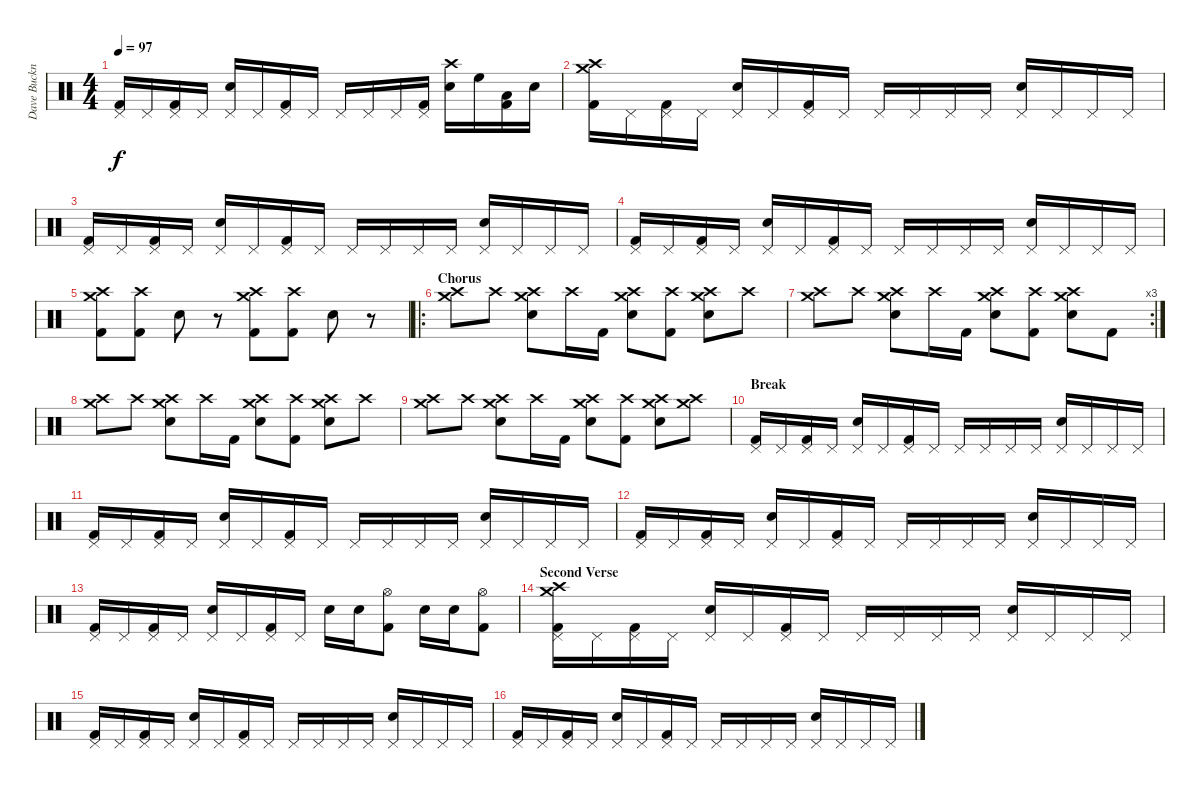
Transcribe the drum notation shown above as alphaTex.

\track ("Dave Buckner" "Dave Buckn") {instrument percussion}
\staff {score}
\articulation defaults
\ts (4 4)
\tempo 97
\clef neutral
\ks c
("Pedal Hi-Hat (hit)" "Kick (hit) 2").16{dy f} "Pedal Hi-Hat (hit)".16 ("Pedal Hi-Hat (hit)" "Kick (hit) 2").16 "Pedal Hi-Hat (hit)".16 ("Pedal Hi-Hat (hit)" "Snare (hit) 2").16 "Pedal Hi-Hat (hit)".16 ("Pedal Hi-Hat (hit)" "Kick (hit) 2").16 "Pedal Hi-Hat (hit)".16 "Pedal Hi-Hat (hit)".16 "Pedal Hi-Hat (hit)".16 "Pedal Hi-Hat (hit)".16 ("Pedal Hi-Hat (hit)" "Kick (hit) 2").16 ("Crash high (hit)" "Snare (hit) 2").16 "High Floor Tom (hit)".16 ("Low Tom (hit)" "Kick (hit) 2").16 "Snare (hit) 2".16 |
("Crash high (hit)" "Crash medium (hit)" "Kick (hit) 2").16 "Pedal Hi-Hat (hit)".16 ("Pedal Hi-Hat (hit)" "Kick (hit) 2").16 "Pedal Hi-Hat (hit)".16 ("Pedal Hi-Hat (hit)" "Snare (hit) 2").16 "Pedal Hi-Hat (hit)".16 ("Pedal Hi-Hat (hit)" "Kick (hit) 2").16 "Pedal Hi-Hat (hit)".16 "Pedal Hi-Hat (hit)".16 "Pedal Hi-Hat (hit)".16 "Pedal Hi-Hat (hit)".16 "Pedal Hi-Hat (hit)".16 ("Pedal Hi-Hat (hit)" "Snare (hit) 2").16 "Pedal Hi-Hat (hit)".16 "Pedal Hi-Hat (hit)".16 "Pedal Hi-Hat (hit)".16 |
("Pedal Hi-Hat (hit)" "Kick (hit) 2").16 "Pedal Hi-Hat (hit)".16 ("Pedal Hi-Hat (hit)" "Kick (hit) 2").16 "Pedal Hi-Hat (hit)".16 ("Pedal Hi-Hat (hit)" "Snare (hit) 2").16 "Pedal Hi-Hat (hit)".16 ("Pedal Hi-Hat (hit)" "Kick (hit) 2").16 "Pedal Hi-Hat (hit)".16 "Pedal Hi-Hat (hit)".16 "Pedal Hi-Hat (hit)".16 "Pedal Hi-Hat (hit)".16 "Pedal Hi-Hat (hit)".16 ("Pedal Hi-Hat (hit)" "Snare (hit) 2").16 "Pedal Hi-Hat (hit)".16 "Pedal Hi-Hat (hit)".16 "Pedal Hi-Hat (hit)".16 |
("Pedal Hi-Hat (hit)" "Kick (hit) 2").16 "Pedal Hi-Hat (hit)".16 ("Pedal Hi-Hat (hit)" "Kick (hit) 2").16 "Pedal Hi-Hat (hit)".16 ("Pedal Hi-Hat (hit)" "Snare (hit) 2").16 "Pedal Hi-Hat (hit)".16 ("Pedal Hi-Hat (hit)" "Kick (hit) 2").16 "Pedal Hi-Hat (hit)".16 "Pedal Hi-Hat (hit)".16 "Pedal Hi-Hat (hit)".16 "Pedal Hi-Hat (hit)".16 "Pedal Hi-Hat (hit)".16 ("Pedal Hi-Hat (hit)" "Snare (hit) 2").16 "Pedal Hi-Hat (hit)".16 "Pedal Hi-Hat (hit)".16 "Pedal Hi-Hat (hit)".16 |
("Crash medium (hit)" "Crash high (hit)" "Kick (hit) 2").8 ("Crash high (hit)" "Kick (hit) 2").8 "Snare (hit) 2".8 r.8 ("Crash medium (hit)" "Crash high (hit)" "Kick (hit) 2").8 ("Crash high (hit)" "Kick (hit) 2").8 "Snare (hit) 2".8 r.8 |
\ro
\section ("" "Chorus")
("Crash medium (hit)" "Crash high (hit)").8 "Crash high (hit)".8 ("Crash medium (hit)" "Crash high (hit)" "Snare (hit) 2").8 "Crash high (hit)".16 "Kick (hit) 2".16 ("Crash medium (hit)" "Crash high (hit)" "Snare (hit) 2").8 ("Crash high (hit)" "Kick (hit) 2").8 ("Crash medium (hit)" "Crash high (hit)" "Snare (hit) 2").8 "Crash high (hit)".8 |
\rc 3
("Crash medium (hit)" "Crash high (hit)").8 "Crash high (hit)".8 ("Crash medium (hit)" "Crash high (hit)" "Snare (hit) 2").8 "Crash high (hit)".16 "Kick (hit) 2".16 ("Crash medium (hit)" "Crash high (hit)" "Snare (hit) 2").8 ("Crash high (hit)" "Kick (hit) 2").8 ("Crash medium (hit)" "Crash high (hit)" "Snare (hit) 2").8 "Kick (hit) 2".8 |
("Crash medium (hit)" "Crash high (hit)").8 "Crash high (hit)".8 ("Crash medium (hit)" "Crash high (hit)" "Snare (hit) 2").8 "Crash high (hit)".16 "Kick (hit) 2".16 ("Crash medium (hit)" "Crash high (hit)" "Snare (hit) 2").8 ("Crash high (hit)" "Kick (hit) 2").8 ("Crash medium (hit)" "Crash high (hit)" "Snare (hit) 2").8 "Crash high (hit)".8 |
("Crash medium (hit)" "Crash high (hit)").8 "Crash high (hit)".8 ("Crash medium (hit)" "Crash high (hit)" "Snare (hit) 2").8 "Crash high (hit)".16 "Kick (hit) 2".16 ("Crash medium (hit)" "Crash high (hit)" "Snare (hit) 2").8 ("Crash high (hit)" "Kick (hit) 2").8 ("Crash medium (hit)" "Crash high (hit)" "Snare (hit) 2").8 ("Crash medium (hit)" "Crash high (hit)").8 |
\section ("" "Break")
("Pedal Hi-Hat (hit)" "Kick (hit) 2").16 "Pedal Hi-Hat (hit)".16 ("Pedal Hi-Hat (hit)" "Kick (hit) 2").16 "Pedal Hi-Hat (hit)".16 ("Pedal Hi-Hat (hit)" "Snare (hit) 2").16 "Pedal Hi-Hat (hit)".16 ("Pedal Hi-Hat (hit)" "Kick (hit) 2").16 "Pedal Hi-Hat (hit)".16 "Pedal Hi-Hat (hit)".16 "Pedal Hi-Hat (hit)".16 "Pedal Hi-Hat (hit)".16 "Pedal Hi-Hat (hit)".16 ("Pedal Hi-Hat (hit)" "Snare (hit) 2").16 "Pedal Hi-Hat (hit)".16 "Pedal Hi-Hat (hit)".16 "Pedal Hi-Hat (hit)".16 |
("Pedal Hi-Hat (hit)" "Kick (hit) 2").16 "Pedal Hi-Hat (hit)".16 ("Pedal Hi-Hat (hit)" "Kick (hit) 2").16 "Pedal Hi-Hat (hit)".16 ("Pedal Hi-Hat (hit)" "Snare (hit) 2").16 "Pedal Hi-Hat (hit)".16 ("Pedal Hi-Hat (hit)" "Kick (hit) 2").16 "Pedal Hi-Hat (hit)".16 "Pedal Hi-Hat (hit)".16 "Pedal Hi-Hat (hit)".16 "Pedal Hi-Hat (hit)".16 "Pedal Hi-Hat (hit)".16 ("Pedal Hi-Hat (hit)" "Snare (hit) 2").16 "Pedal Hi-Hat (hit)".16 "Pedal Hi-Hat (hit)".16 "Pedal Hi-Hat (hit)".16 |
("Pedal Hi-Hat (hit)" "Kick (hit) 2").16 "Pedal Hi-Hat (hit)".16 ("Pedal Hi-Hat (hit)" "Kick (hit) 2").16 "Pedal Hi-Hat (hit)".16 ("Pedal Hi-Hat (hit)" "Snare (hit) 2").16 "Pedal Hi-Hat (hit)".16 ("Pedal Hi-Hat (hit)" "Kick (hit) 2").16 "Pedal Hi-Hat (hit)".16 "Pedal Hi-Hat (hit)".16 "Pedal Hi-Hat (hit)".16 "Pedal Hi-Hat (hit)".16 "Pedal Hi-Hat (hit)".16 ("Pedal Hi-Hat (hit)" "Snare (hit) 2").16 "Pedal Hi-Hat (hit)".16 "Pedal Hi-Hat (hit)".16 "Pedal Hi-Hat (hit)".16 |
("Pedal Hi-Hat (hit)" "Kick (hit) 2").16 "Pedal Hi-Hat (hit)".16 ("Pedal Hi-Hat (hit)" "Kick (hit) 2").16 "Pedal Hi-Hat (hit)".16 ("Pedal Hi-Hat (hit)" "Snare (hit) 2").16 "Pedal Hi-Hat (hit)".16 ("Pedal Hi-Hat (hit)" "Kick (hit) 2").16 "Pedal Hi-Hat (hit)".16 "Snare (hit) 2".16 "Snare (hit) 2".16 ("Hi-Hat (open)" "Kick (hit) 2").8 "Snare (hit) 2".16 "Snare (hit) 2".16 ("Hi-Hat (open)" "Kick (hit) 2").8 |
\section ("" "Second Verse")
("Crash medium (hit)" "Crash high (hit)" "Pedal Hi-Hat (hit)" "Kick (hit) 2").16 "Pedal Hi-Hat (hit)".16 ("Pedal Hi-Hat (hit)" "Kick (hit) 2").16 "Pedal Hi-Hat (hit)".16 ("Pedal Hi-Hat (hit)" "Snare (hit) 2").16 "Pedal Hi-Hat (hit)".16 ("Pedal Hi-Hat (hit)" "Kick (hit) 2").16 "Pedal Hi-Hat (hit)".16 "Pedal Hi-Hat (hit)".16 "Pedal Hi-Hat (hit)".16 "Pedal Hi-Hat (hit)".16 "Pedal Hi-Hat (hit)".16 ("Pedal Hi-Hat (hit)" "Snare (hit) 2").16 "Pedal Hi-Hat (hit)".16 "Pedal Hi-Hat (hit)".16 "Pedal Hi-Hat (hit)".16 |
("Pedal Hi-Hat (hit)" "Kick (hit) 2").16 "Pedal Hi-Hat (hit)".16 ("Pedal Hi-Hat (hit)" "Kick (hit) 2").16 "Pedal Hi-Hat (hit)".16 ("Pedal Hi-Hat (hit)" "Snare (hit) 2").16 "Pedal Hi-Hat (hit)".16 ("Pedal Hi-Hat (hit)" "Kick (hit) 2").16 "Pedal Hi-Hat (hit)".16 "Pedal Hi-Hat (hit)".16 "Pedal Hi-Hat (hit)".16 "Pedal Hi-Hat (hit)".16 "Pedal Hi-Hat (hit)".16 ("Pedal Hi-Hat (hit)" "Snare (hit) 2").16 "Pedal Hi-Hat (hit)".16 "Pedal Hi-Hat (hit)".16 "Pedal Hi-Hat (hit)".16 |
("Pedal Hi-Hat (hit)" "Kick (hit) 2").16 "Pedal Hi-Hat (hit)".16 ("Pedal Hi-Hat (hit)" "Kick (hit) 2").16 "Pedal Hi-Hat (hit)".16 ("Pedal Hi-Hat (hit)" "Snare (hit) 2").16 "Pedal Hi-Hat (hit)".16 ("Pedal Hi-Hat (hit)" "Kick (hit) 2").16 "Pedal Hi-Hat (hit)".16 "Pedal Hi-Hat (hit)".16 "Pedal Hi-Hat (hit)".16 "Pedal Hi-Hat (hit)".16 "Pedal Hi-Hat (hit)".16 ("Pedal Hi-Hat (hit)" "Snare (hit) 2").16 "Pedal Hi-Hat (hit)".16 "Pedal Hi-Hat (hit)".16 "Pedal Hi-Hat (hit)".16
